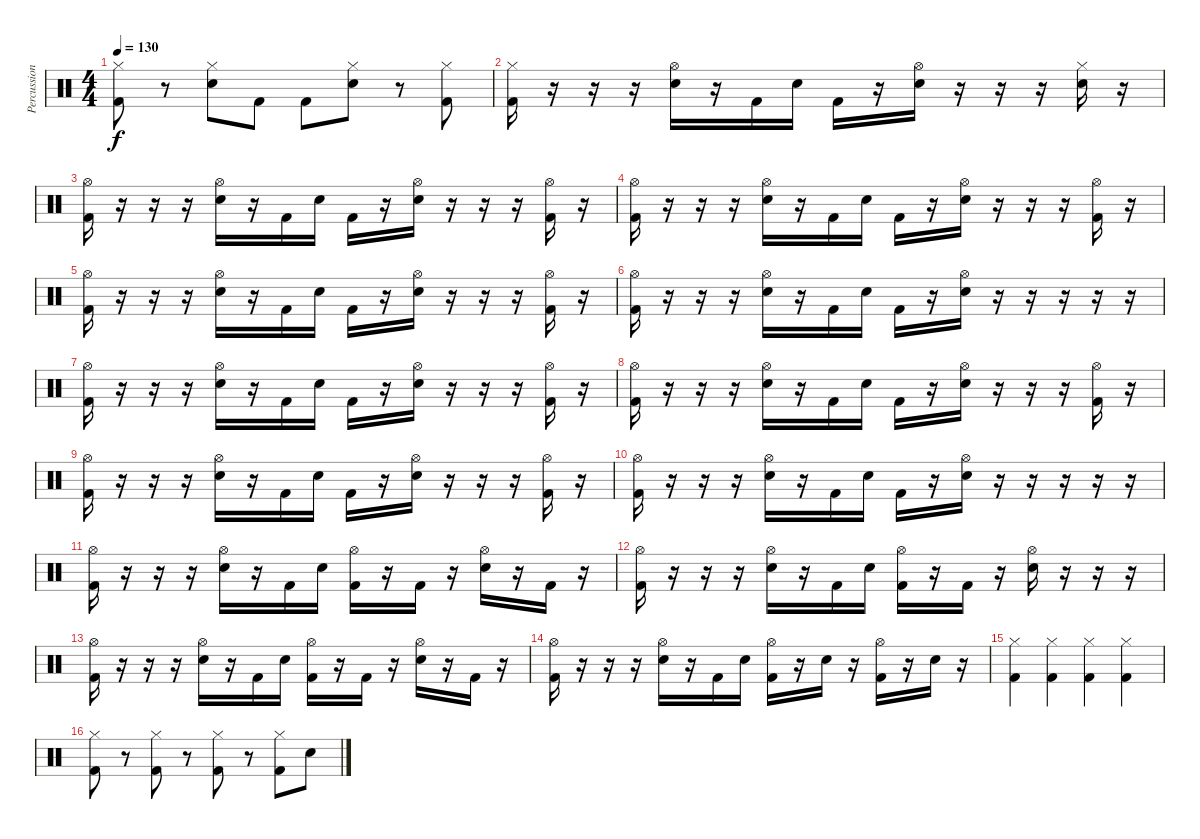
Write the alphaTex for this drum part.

\track ("Percussion" "Percussion") {instrument percussion}
\staff {score}
\articulation defaults
\ts (4 4)
\tempo 130
\clef neutral
\ks c
("Kick (hit) 2" "Hi-Hat (closed)").8{dy f} r.8 ("Electric Snare (hit)" "Hi-Hat (closed)").8 "Kick (hit) 2".8 "Kick (hit) 2".8 ("Electric Snare (hit)" "Hi-Hat (closed)").8 r.8 ("Kick (hit) 2" "Hi-Hat (closed)").8 |
("Kick (hit) 2" "Hi-Hat (closed)").16 r.16 r.16 r.16 ("Electric Snare (hit)" "Hi-Hat (open)").16 r.16 "Kick (hit) 2".16 "Snare (hit) 2".16 "Kick (hit) 2".16 r.16 ("Electric Snare (hit)" "Hi-Hat (open)").16 r.16 r.16 r.16 ("Electric Snare (hit)" "Hi-Hat (closed)").16 r.16 |
("Kick (hit) 2" "Hi-Hat (open)").16 r.16 r.16 r.16 ("Electric Snare (hit)" "Hi-Hat (open)").16 r.16 "Kick (hit) 2".16 "Snare (hit) 2".16 "Kick (hit) 2".16 r.16 ("Electric Snare (hit)" "Hi-Hat (open)").16 r.16 r.16 r.16 ("Kick (hit) 2" "Hi-Hat (open)").16 r.16 |
("Kick (hit) 2" "Hi-Hat (open)").16 r.16 r.16 r.16 ("Electric Snare (hit)" "Hi-Hat (open)").16 r.16 "Kick (hit) 2".16 "Snare (hit) 2".16 "Kick (hit) 2".16 r.16 ("Electric Snare (hit)" "Hi-Hat (open)").16 r.16 r.16 r.16 ("Kick (hit) 2" "Hi-Hat (open)").16 r.16 |
("Kick (hit) 2" "Hi-Hat (open)").16 r.16 r.16 r.16 ("Electric Snare (hit)" "Hi-Hat (open)").16 r.16 "Kick (hit) 2".16 "Snare (hit) 2".16 "Kick (hit) 2".16 r.16 ("Electric Snare (hit)" "Hi-Hat (open)").16 r.16 r.16 r.16 ("Kick (hit) 2" "Hi-Hat (open)").16 r.16 |
("Kick (hit) 2" "Hi-Hat (open)").16 r.16 r.16 r.16 ("Electric Snare (hit)" "Hi-Hat (open)").16 r.16 "Kick (hit) 2".16 "Snare (hit) 2".16 "Kick (hit) 2".16 r.16 ("Electric Snare (hit)" "Hi-Hat (open)").16 r.16 r.16 r.16 r.16 r.16 |
("Kick (hit) 2" "Hi-Hat (open)").16 r.16 r.16 r.16 ("Electric Snare (hit)" "Hi-Hat (open)").16 r.16 "Kick (hit) 2".16 "Snare (hit) 2".16 "Kick (hit) 2".16 r.16 ("Electric Snare (hit)" "Hi-Hat (open)").16 r.16 r.16 r.16 ("Kick (hit) 2" "Hi-Hat (open)").16 r.16 |
("Kick (hit) 2" "Hi-Hat (open)").16 r.16 r.16 r.16 ("Electric Snare (hit)" "Hi-Hat (open)").16 r.16 "Kick (hit) 2".16 "Snare (hit) 2".16 "Kick (hit) 2".16 r.16 ("Electric Snare (hit)" "Hi-Hat (open)").16 r.16 r.16 r.16 ("Kick (hit) 2" "Hi-Hat (open)").16 r.16 |
("Kick (hit) 2" "Hi-Hat (open)").16 r.16 r.16 r.16 ("Electric Snare (hit)" "Hi-Hat (open)").16 r.16 "Kick (hit) 2".16 "Snare (hit) 2".16 "Kick (hit) 2".16 r.16 ("Electric Snare (hit)" "Hi-Hat (open)").16 r.16 r.16 r.16 ("Kick (hit) 2" "Hi-Hat (open)").16 r.16 |
("Kick (hit) 2" "Hi-Hat (open)").16 r.16 r.16 r.16 ("Electric Snare (hit)" "Hi-Hat (open)").16 r.16 "Kick (hit) 2".16 "Snare (hit) 2".16 "Kick (hit) 2".16 r.16 ("Electric Snare (hit)" "Hi-Hat (open)").16 r.16 r.16 r.16 r.16 r.16 |
("Kick (hit) 2" "Hi-Hat (open)").16 r.16 r.16 r.16 ("Electric Snare (hit)" "Hi-Hat (open)").16 r.16 "Kick (hit) 2".16 "Snare (hit) 2".16 ("Kick (hit) 2" "Hi-Hat (open)").16 r.16 "Kick (hit) 2".16 r.16 ("Electric Snare (hit)" "Hi-Hat (open)").16 r.16 "Kick (hit) 2".16 r.16 |
("Kick (hit) 2" "Hi-Hat (open)").16 r.16 r.16 r.16 ("Electric Snare (hit)" "Hi-Hat (open)").16 r.16 "Kick (hit) 2".16 "Snare (hit) 2".16 ("Kick (hit) 2" "Hi-Hat (open)").16 r.16 "Kick (hit) 2".16 r.16 ("Electric Snare (hit)" "Hi-Hat (open)").16 r.16 r.16 r.16 |
("Kick (hit) 2" "Hi-Hat (open)").16 r.16 r.16 r.16 ("Electric Snare (hit)" "Hi-Hat (open)").16 r.16 "Kick (hit) 2".16 "Snare (hit) 2".16 ("Kick (hit) 2" "Hi-Hat (open)").16 r.16 "Kick (hit) 2".16 r.16 ("Electric Snare (hit)" "Hi-Hat (open)").16 r.16 "Kick (hit) 2".16 r.16 |
("Kick (hit) 2" "Hi-Hat (open)").16 r.16 r.16 r.16 ("Electric Snare (hit)" "Hi-Hat (open)").16 r.16 "Kick (hit) 2".16 "Snare (hit) 2".16 ("Kick (hit) 2" "Hi-Hat (open)").16 r.16 "Electric Snare (hit)".16 r.16 ("Kick (hit) 2" "Hi-Hat (open)").16 r.16 "Electric Snare (hit)".16 r.16 |
("Kick (hit) 2" "Hi-Hat (closed)").4 ("Kick (hit) 2" "Hi-Hat (closed)").4 ("Kick (hit) 2" "Hi-Hat (closed)").4 ("Kick (hit) 2" "Hi-Hat (closed)").4 |
("Kick (hit) 2" "Hi-Hat (closed)").8 r.8 ("Kick (hit) 2" "Hi-Hat (closed)").8 r.8 ("Kick (hit) 2" "Hi-Hat (closed)").8 r.8 ("Kick (hit) 2" "Hi-Hat (closed)").8 "Electric Snare (hit)".8
